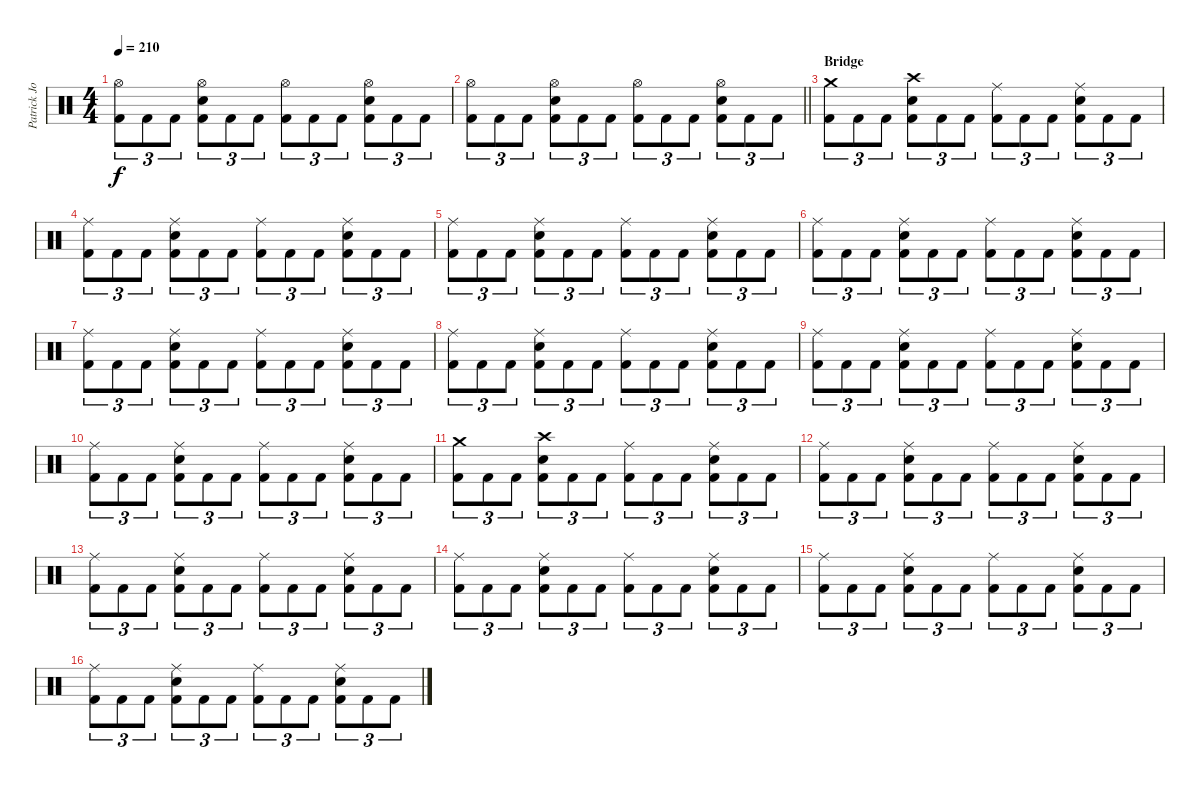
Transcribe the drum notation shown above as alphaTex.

\track ("Patrick Johansson" "Patrick Jo") {instrument percussion}
\staff {score}
\articulation defaults
\ts (4 4)
\tempo 210
\clef neutral
\ks c
("Hi-Hat (open)" "Kick (hit) 2").8{tu (3 2) dy f} "Kick (hit) 2".8{tu (3 2)} "Kick (hit) 2".8{tu (3 2)} ("Hi-Hat (open)" "Snare (hit) 2" "Kick (hit) 2").8{tu (3 2)} "Kick (hit) 2".8{tu (3 2)} "Kick (hit) 2".8{tu (3 2)} ("Hi-Hat (open)" "Kick (hit) 2").8{tu (3 2)} "Kick (hit) 2".8{tu (3 2)} "Kick (hit) 2".8{tu (3 2)} ("Hi-Hat (open)" "Snare (hit) 2" "Kick (hit) 2").8{tu (3 2)} "Kick (hit) 2".8{tu (3 2)} "Kick (hit) 2".8{tu (3 2)} |
\barLineRight lightlight
("Hi-Hat (open)" "Kick (hit) 2").8{tu (3 2)} "Kick (hit) 2".8{tu (3 2)} "Kick (hit) 2".8{tu (3 2)} ("Hi-Hat (open)" "Snare (hit) 2" "Kick (hit) 2").8{tu (3 2)} "Kick (hit) 2".8{tu (3 2)} "Kick (hit) 2".8{tu (3 2)} ("Hi-Hat (open)" "Kick (hit) 2").8{tu (3 2)} "Kick (hit) 2".8{tu (3 2)} "Kick (hit) 2".8{tu (3 2)} ("Hi-Hat (open)" "Snare (hit) 2" "Kick (hit) 2").8{tu (3 2)} "Kick (hit) 2".8{tu (3 2)} "Kick (hit) 2".8{tu (3 2)} |
\section ("" "Bridge")
("Crash medium (hit)" "Kick (hit) 2").8{tu (3 2)} "Kick (hit) 2".8{tu (3 2)} "Kick (hit) 2".8{tu (3 2)} ("Crash high (hit)" "Snare (hit) 2" "Kick (hit) 2").8{tu (3 2)} "Kick (hit) 2".8{tu (3 2)} "Kick (hit) 2".8{tu (3 2)} ("Ride (middle)" "Kick (hit) 2").8{tu (3 2)} "Kick (hit) 2".8{tu (3 2)} "Kick (hit) 2".8{tu (3 2)} ("Ride (middle)" "Snare (hit) 2" "Kick (hit) 2").8{tu (3 2)} "Kick (hit) 2".8{tu (3 2)} "Kick (hit) 2".8{tu (3 2)} |
("Ride (middle)" "Kick (hit) 2").8{tu (3 2)} "Kick (hit) 2".8{tu (3 2)} "Kick (hit) 2".8{tu (3 2)} ("Ride (middle)" "Snare (hit) 2" "Kick (hit) 2").8{tu (3 2)} "Kick (hit) 2".8{tu (3 2)} "Kick (hit) 2".8{tu (3 2)} ("Ride (middle)" "Kick (hit) 2").8{tu (3 2)} "Kick (hit) 2".8{tu (3 2)} "Kick (hit) 2".8{tu (3 2)} ("Ride (middle)" "Snare (hit) 2" "Kick (hit) 2").8{tu (3 2)} "Kick (hit) 2".8{tu (3 2)} "Kick (hit) 2".8{tu (3 2)} |
("Ride (middle)" "Kick (hit) 2").8{tu (3 2)} "Kick (hit) 2".8{tu (3 2)} "Kick (hit) 2".8{tu (3 2)} ("Ride (middle)" "Snare (hit) 2" "Kick (hit) 2").8{tu (3 2)} "Kick (hit) 2".8{tu (3 2)} "Kick (hit) 2".8{tu (3 2)} ("Ride (middle)" "Kick (hit) 2").8{tu (3 2)} "Kick (hit) 2".8{tu (3 2)} "Kick (hit) 2".8{tu (3 2)} ("Ride (middle)" "Snare (hit) 2" "Kick (hit) 2").8{tu (3 2)} "Kick (hit) 2".8{tu (3 2)} "Kick (hit) 2".8{tu (3 2)} |
("Ride (middle)" "Kick (hit) 2").8{tu (3 2)} "Kick (hit) 2".8{tu (3 2)} "Kick (hit) 2".8{tu (3 2)} ("Ride (middle)" "Snare (hit) 2" "Kick (hit) 2").8{tu (3 2)} "Kick (hit) 2".8{tu (3 2)} "Kick (hit) 2".8{tu (3 2)} ("Ride (middle)" "Kick (hit) 2").8{tu (3 2)} "Kick (hit) 2".8{tu (3 2)} "Kick (hit) 2".8{tu (3 2)} ("Ride (middle)" "Snare (hit) 2" "Kick (hit) 2").8{tu (3 2)} "Kick (hit) 2".8{tu (3 2)} "Kick (hit) 2".8{tu (3 2)} |
("Ride (middle)" "Kick (hit) 2").8{tu (3 2)} "Kick (hit) 2".8{tu (3 2)} "Kick (hit) 2".8{tu (3 2)} ("Ride (middle)" "Snare (hit) 2" "Kick (hit) 2").8{tu (3 2)} "Kick (hit) 2".8{tu (3 2)} "Kick (hit) 2".8{tu (3 2)} ("Ride (middle)" "Kick (hit) 2").8{tu (3 2)} "Kick (hit) 2".8{tu (3 2)} "Kick (hit) 2".8{tu (3 2)} ("Ride (middle)" "Snare (hit) 2" "Kick (hit) 2").8{tu (3 2)} "Kick (hit) 2".8{tu (3 2)} "Kick (hit) 2".8{tu (3 2)} |
("Ride (middle)" "Kick (hit) 2").8{tu (3 2)} "Kick (hit) 2".8{tu (3 2)} "Kick (hit) 2".8{tu (3 2)} ("Ride (middle)" "Snare (hit) 2" "Kick (hit) 2").8{tu (3 2)} "Kick (hit) 2".8{tu (3 2)} "Kick (hit) 2".8{tu (3 2)} ("Ride (middle)" "Kick (hit) 2").8{tu (3 2)} "Kick (hit) 2".8{tu (3 2)} "Kick (hit) 2".8{tu (3 2)} ("Ride (middle)" "Snare (hit) 2" "Kick (hit) 2").8{tu (3 2)} "Kick (hit) 2".8{tu (3 2)} "Kick (hit) 2".8{tu (3 2)} |
("Ride (middle)" "Kick (hit) 2").8{tu (3 2)} "Kick (hit) 2".8{tu (3 2)} "Kick (hit) 2".8{tu (3 2)} ("Ride (middle)" "Snare (hit) 2" "Kick (hit) 2").8{tu (3 2)} "Kick (hit) 2".8{tu (3 2)} "Kick (hit) 2".8{tu (3 2)} ("Ride (middle)" "Kick (hit) 2").8{tu (3 2)} "Kick (hit) 2".8{tu (3 2)} "Kick (hit) 2".8{tu (3 2)} ("Ride (middle)" "Snare (hit) 2" "Kick (hit) 2").8{tu (3 2)} "Kick (hit) 2".8{tu (3 2)} "Kick (hit) 2".8{tu (3 2)} |
("Ride (middle)" "Kick (hit) 2").8{tu (3 2)} "Kick (hit) 2".8{tu (3 2)} "Kick (hit) 2".8{tu (3 2)} ("Ride (middle)" "Snare (hit) 2" "Kick (hit) 2").8{tu (3 2)} "Kick (hit) 2".8{tu (3 2)} "Kick (hit) 2".8{tu (3 2)} ("Ride (middle)" "Kick (hit) 2").8{tu (3 2)} "Kick (hit) 2".8{tu (3 2)} "Kick (hit) 2".8{tu (3 2)} ("Ride (middle)" "Snare (hit) 2" "Kick (hit) 2").8{tu (3 2)} "Kick (hit) 2".8{tu (3 2)} "Kick (hit) 2".8{tu (3 2)} |
("Crash medium (hit)" "Kick (hit) 2").8{tu (3 2)} "Kick (hit) 2".8{tu (3 2)} "Kick (hit) 2".8{tu (3 2)} ("Crash high (hit)" "Snare (hit) 2" "Kick (hit) 2").8{tu (3 2)} "Kick (hit) 2".8{tu (3 2)} "Kick (hit) 2".8{tu (3 2)} ("Ride (middle)" "Kick (hit) 2").8{tu (3 2)} "Kick (hit) 2".8{tu (3 2)} "Kick (hit) 2".8{tu (3 2)} ("Ride (middle)" "Snare (hit) 2" "Kick (hit) 2").8{tu (3 2)} "Kick (hit) 2".8{tu (3 2)} "Kick (hit) 2".8{tu (3 2)} |
("Ride (middle)" "Kick (hit) 2").8{tu (3 2)} "Kick (hit) 2".8{tu (3 2)} "Kick (hit) 2".8{tu (3 2)} ("Ride (middle)" "Snare (hit) 2" "Kick (hit) 2").8{tu (3 2)} "Kick (hit) 2".8{tu (3 2)} "Kick (hit) 2".8{tu (3 2)} ("Ride (middle)" "Kick (hit) 2").8{tu (3 2)} "Kick (hit) 2".8{tu (3 2)} "Kick (hit) 2".8{tu (3 2)} ("Ride (middle)" "Snare (hit) 2" "Kick (hit) 2").8{tu (3 2)} "Kick (hit) 2".8{tu (3 2)} "Kick (hit) 2".8{tu (3 2)} |
("Ride (middle)" "Kick (hit) 2").8{tu (3 2)} "Kick (hit) 2".8{tu (3 2)} "Kick (hit) 2".8{tu (3 2)} ("Ride (middle)" "Snare (hit) 2" "Kick (hit) 2").8{tu (3 2)} "Kick (hit) 2".8{tu (3 2)} "Kick (hit) 2".8{tu (3 2)} ("Ride (middle)" "Kick (hit) 2").8{tu (3 2)} "Kick (hit) 2".8{tu (3 2)} "Kick (hit) 2".8{tu (3 2)} ("Ride (middle)" "Snare (hit) 2" "Kick (hit) 2").8{tu (3 2)} "Kick (hit) 2".8{tu (3 2)} "Kick (hit) 2".8{tu (3 2)} |
("Ride (middle)" "Kick (hit) 2").8{tu (3 2)} "Kick (hit) 2".8{tu (3 2)} "Kick (hit) 2".8{tu (3 2)} ("Ride (middle)" "Snare (hit) 2" "Kick (hit) 2").8{tu (3 2)} "Kick (hit) 2".8{tu (3 2)} "Kick (hit) 2".8{tu (3 2)} ("Ride (middle)" "Kick (hit) 2").8{tu (3 2)} "Kick (hit) 2".8{tu (3 2)} "Kick (hit) 2".8{tu (3 2)} ("Ride (middle)" "Snare (hit) 2" "Kick (hit) 2").8{tu (3 2)} "Kick (hit) 2".8{tu (3 2)} "Kick (hit) 2".8{tu (3 2)} |
("Ride (middle)" "Kick (hit) 2").8{tu (3 2)} "Kick (hit) 2".8{tu (3 2)} "Kick (hit) 2".8{tu (3 2)} ("Ride (middle)" "Snare (hit) 2" "Kick (hit) 2").8{tu (3 2)} "Kick (hit) 2".8{tu (3 2)} "Kick (hit) 2".8{tu (3 2)} ("Ride (middle)" "Kick (hit) 2").8{tu (3 2)} "Kick (hit) 2".8{tu (3 2)} "Kick (hit) 2".8{tu (3 2)} ("Ride (middle)" "Snare (hit) 2" "Kick (hit) 2").8{tu (3 2)} "Kick (hit) 2".8{tu (3 2)} "Kick (hit) 2".8{tu (3 2)} |
("Ride (middle)" "Kick (hit) 2").8{tu (3 2)} "Kick (hit) 2".8{tu (3 2)} "Kick (hit) 2".8{tu (3 2)} ("Ride (middle)" "Snare (hit) 2" "Kick (hit) 2").8{tu (3 2)} "Kick (hit) 2".8{tu (3 2)} "Kick (hit) 2".8{tu (3 2)} ("Ride (middle)" "Kick (hit) 2").8{tu (3 2)} "Kick (hit) 2".8{tu (3 2)} "Kick (hit) 2".8{tu (3 2)} ("Ride (middle)" "Snare (hit) 2" "Kick (hit) 2").8{tu (3 2)} "Kick (hit) 2".8{tu (3 2)} "Kick (hit) 2".8{tu (3 2)}
